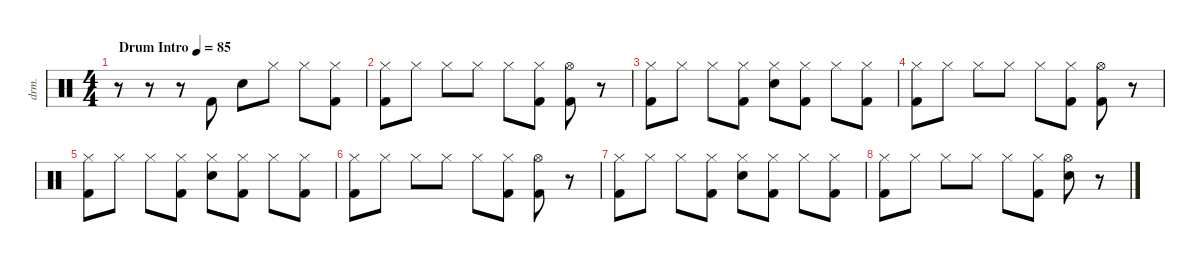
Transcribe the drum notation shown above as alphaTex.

\defaultSystemsLayout 4
\hideDynamics
\bracketExtendMode nobrackets
\track ("Drumkit" "drm.") {instrument percussion}
\staff {score}
\articulation defaults
\ts (4 4)
\tempo (85 "Drum Intro")
\clef neutral
\ks c
r.8{dy mf beam Down} r.8{beam Down} r.8{beam Down} "Kick (hit) 2".8{beam Up} "Snare (hit) 2".8{beam Down} "Hi-Hat (closed)".8{beam Down} "Hi-Hat (closed)".8{beam Down} ("Kick (hit) 2" "Hi-Hat (closed)").8{beam Down} |
("Kick (hit) 2" "Hi-Hat (closed)").8{beam Down} "Hi-Hat (closed)".8{beam Down} "Hi-Hat (closed)".8{beam Down} "Hi-Hat (closed)".8{beam Down} "Hi-Hat (closed)".8{beam Down} ("Kick (hit) 2" "Hi-Hat (closed)").8{beam Down} ("Hi-Hat (open)" "Kick (hit) 2").8{beam Down} r.8{beam Down} |
("Kick (hit) 2" "Hi-Hat (closed)").8{beam Down} "Hi-Hat (closed)".8{beam Down} "Hi-Hat (closed)".8{beam Down} ("Kick (hit) 2" "Hi-Hat (closed)").8{beam Down} ("Snare (hit) 2" "Hi-Hat (closed)").8{beam Down} ("Kick (hit) 2" "Hi-Hat (closed)").8{beam Down} "Hi-Hat (closed)".8{beam Down} ("Kick (hit) 2" "Hi-Hat (closed)").8{beam Down} |
("Hi-Hat (closed)" "Kick (hit) 2").8{beam Down} "Hi-Hat (closed)".8{beam Down} "Hi-Hat (closed)".8{beam Down} "Hi-Hat (closed)".8{beam Down} "Hi-Hat (closed)".8{beam Down} ("Hi-Hat (closed)" "Kick (hit) 2").8{beam Down} ("Hi-Hat (open)" "Kick (hit) 2").8{beam Down} r.8{beam Down} |
("Kick (hit) 2" "Hi-Hat (closed)").8{beam Down} "Hi-Hat (closed)".8{beam Down} "Hi-Hat (closed)".8{beam Down} ("Kick (hit) 2" "Hi-Hat (closed)").8{beam Down} ("Snare (hit) 2" "Hi-Hat (closed)").8{beam Down} ("Kick (hit) 2" "Hi-Hat (closed)").8{beam Down} "Hi-Hat (closed)".8{beam Down} ("Kick (hit) 2" "Hi-Hat (closed)").8{beam Down} |
("Kick (hit) 2" "Hi-Hat (closed)").8{beam Down} "Hi-Hat (closed)".8{beam Down} "Hi-Hat (closed)".8{beam Down} "Hi-Hat (closed)".8{beam Down} "Hi-Hat (closed)".8{beam Down} ("Kick (hit) 2" "Hi-Hat (closed)").8{beam Down} ("Hi-Hat (open)" "Kick (hit) 2").8{beam Down} r.8{beam Down} |
("Kick (hit) 2" "Hi-Hat (closed)").8{beam Down} "Hi-Hat (closed)".8{beam Down} "Hi-Hat (closed)".8{beam Down} ("Kick (hit) 2" "Hi-Hat (closed)").8{beam Down} ("Snare (hit) 2" "Hi-Hat (closed)").8{beam Down} ("Kick (hit) 2" "Hi-Hat (closed)").8{beam Down} "Hi-Hat (closed)".8{beam Down} ("Kick (hit) 2" "Hi-Hat (closed)").8{beam Down} |
("Hi-Hat (closed)" "Kick (hit) 2").8{beam Down} "Hi-Hat (closed)".8{beam Down} "Hi-Hat (closed)".8{beam Down} "Hi-Hat (closed)".8{beam Down} "Hi-Hat (closed)".8{beam Down} ("Hi-Hat (closed)" "Kick (hit) 2").8{beam Down} ("Hi-Hat (open)" "Snare (hit) 2").8{beam Down} r.8{beam Down}
